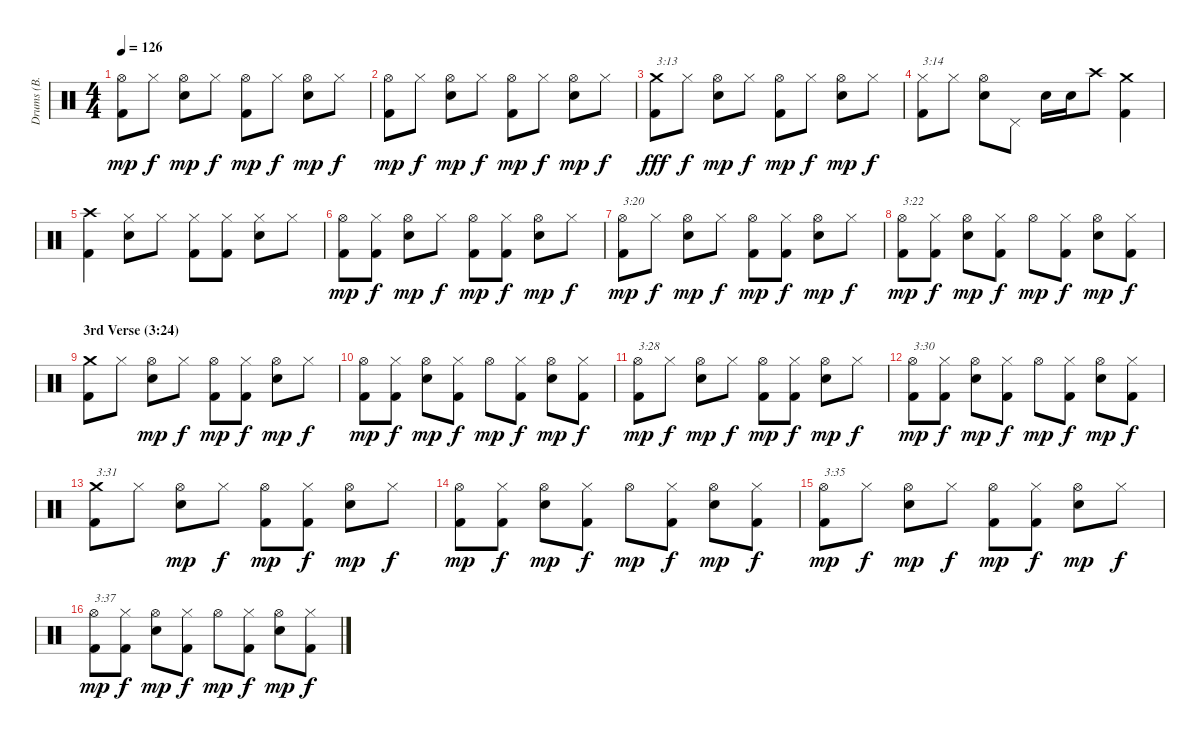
\track ("Drums (B. Downey)" "Drums (B. ") {instrument percussion}
\staff {score}
\articulation defaults
\ts (4 4)
\tempo 126
\clef neutral
\ks c
("Hi-Hat (open)" "Kick (hit) 2").8{dy mp} "Hi-Hat (closed)".8{dy f} ("Hi-Hat (open)" "Electric Snare (hit)").8{dy mp} "Hi-Hat (closed)".8{dy f} ("Hi-Hat (open)" "Kick (hit) 2").8{dy mp} "Hi-Hat (closed)".8{dy f} ("Hi-Hat (open)" "Electric Snare (hit)").8{dy mp} "Hi-Hat (closed)".8{dy f} |
("Hi-Hat (open)" "Kick (hit) 2").8{dy mp} "Hi-Hat (closed)".8{dy f} ("Hi-Hat (open)" "Electric Snare (hit)").8{dy mp} "Hi-Hat (closed)".8{dy f} ("Hi-Hat (open)" "Kick (hit) 2").8{dy mp} "Hi-Hat (closed)".8{dy f} ("Hi-Hat (open)" "Electric Snare (hit)").8{dy mp} "Hi-Hat (closed)".8{dy f} |
("Crash medium (hit)" "Kick (hit) 2").8{txt "3:13" dy fff} "Hi-Hat (closed)".8{dy f} ("Hi-Hat (open)" "Electric Snare (hit)").8{dy mp} "Hi-Hat (closed)".8{dy f} ("Hi-Hat (open)" "Kick (hit) 2").8{dy mp} "Hi-Hat (closed)".8{dy f} ("Hi-Hat (open)" "Electric Snare (hit)").8{dy mp} "Hi-Hat (closed)".8{dy f} |
("Hi-Hat (closed)" "Kick (hit) 2").8{txt "3:14"} "Hi-Hat (closed)".8 ("Hi-Hat (open)" "Electric Snare (hit)").8 "Pedal Hi-Hat (hit)".8 "Electric Snare (hit)".16 "Electric Snare (hit)".16 "Crash high (hit)".8{balance 13} ("Crash medium (hit)" "Kick (hit) 2").4{balance 3} |
("Crash high (hit)" "Kick (hit) 2").4{balance 8} ("Hi-Hat (closed)" "Electric Snare (hit)").8 "Hi-Hat (closed)".8 ("Hi-Hat (closed)" "Kick (hit) 2").8 ("Hi-Hat (closed)" "Kick (hit) 2").8 ("Hi-Hat (closed)" "Electric Snare (hit)").8 "Hi-Hat (closed)".8 |
("Hi-Hat (open)" "Kick (hit) 2").8{dy mp} ("Hi-Hat (closed)" "Kick (hit) 2").8{dy f} ("Hi-Hat (open)" "Electric Snare (hit)").8{dy mp} "Hi-Hat (closed)".8{dy f} ("Hi-Hat (open)" "Kick (hit) 2").8{dy mp} ("Hi-Hat (closed)" "Kick (hit) 2").8{dy f} ("Hi-Hat (open)" "Electric Snare (hit)").8{dy mp} "Hi-Hat (closed)".8{dy f} |
("Hi-Hat (open)" "Kick (hit) 2").8{txt "3:20" dy mp} "Hi-Hat (closed)".8{dy f} ("Hi-Hat (open)" "Electric Snare (hit)").8{dy mp} "Hi-Hat (closed)".8{dy f} ("Hi-Hat (open)" "Kick (hit) 2").8{dy mp} ("Hi-Hat (closed)" "Kick (hit) 2").8{dy f} ("Hi-Hat (open)" "Electric Snare (hit)").8{dy mp} "Hi-Hat (closed)".8{dy f} |
("Hi-Hat (open)" "Kick (hit) 2").8{txt "3:22" dy mp} ("Hi-Hat (closed)" "Kick (hit) 2").8{dy f} ("Hi-Hat (open)" "Electric Snare (hit)").8{dy mp} ("Hi-Hat (closed)" "Kick (hit) 2").8{dy f} "Hi-Hat (open)".8{dy mp} ("Hi-Hat (closed)" "Kick (hit) 2").8{dy f} ("Hi-Hat (open)" "Electric Snare (hit)").8{dy mp} ("Hi-Hat (closed)" "Kick (hit) 2").8{dy f} |
\section ("" "3rd Verse (3:24)")
("Crash medium (hit)" "Kick (hit) 2").8 "Hi-Hat (closed)".8 ("Hi-Hat (open)" "Electric Snare (hit)").8{dy mp} "Hi-Hat (closed)".8{dy f} ("Hi-Hat (open)" "Kick (hit) 2").8{dy mp} ("Hi-Hat (closed)" "Kick (hit) 2").8{dy f} ("Hi-Hat (open)" "Electric Snare (hit)").8{dy mp} "Hi-Hat (closed)".8{dy f} |
("Hi-Hat (open)" "Kick (hit) 2").8{dy mp} ("Hi-Hat (closed)" "Kick (hit) 2").8{dy f} ("Hi-Hat (open)" "Electric Snare (hit)").8{dy mp} ("Hi-Hat (closed)" "Kick (hit) 2").8{dy f} "Hi-Hat (open)".8{dy mp} ("Hi-Hat (closed)" "Kick (hit) 2").8{dy f} ("Hi-Hat (open)" "Electric Snare (hit)").8{dy mp} ("Hi-Hat (closed)" "Kick (hit) 2").8{dy f} |
("Hi-Hat (open)" "Kick (hit) 2").8{txt "3:28" dy mp} "Hi-Hat (closed)".8{dy f} ("Hi-Hat (open)" "Electric Snare (hit)").8{dy mp} "Hi-Hat (closed)".8{dy f} ("Hi-Hat (open)" "Kick (hit) 2").8{dy mp} ("Hi-Hat (closed)" "Kick (hit) 2").8{dy f} ("Hi-Hat (open)" "Electric Snare (hit)").8{dy mp} "Hi-Hat (closed)".8{dy f} |
("Hi-Hat (open)" "Kick (hit) 2").8{txt "3:30" dy mp} ("Hi-Hat (closed)" "Kick (hit) 2").8{dy f} ("Hi-Hat (open)" "Electric Snare (hit)").8{dy mp} ("Hi-Hat (closed)" "Kick (hit) 2").8{dy f} "Hi-Hat (open)".8{dy mp} ("Hi-Hat (closed)" "Kick (hit) 2").8{dy f} ("Hi-Hat (open)" "Electric Snare (hit)").8{dy mp} ("Hi-Hat (closed)" "Kick (hit) 2").8{dy f} |
("Crash medium (hit)" "Kick (hit) 2").8{txt "3:31"} "Hi-Hat (closed)".8 ("Hi-Hat (open)" "Electric Snare (hit)").8{dy mp} "Hi-Hat (closed)".8{dy f} ("Hi-Hat (open)" "Kick (hit) 2").8{dy mp} ("Hi-Hat (closed)" "Kick (hit) 2").8{dy f} ("Hi-Hat (open)" "Electric Snare (hit)").8{dy mp} "Hi-Hat (closed)".8{dy f} |
("Hi-Hat (open)" "Kick (hit) 2").8{dy mp} ("Hi-Hat (closed)" "Kick (hit) 2").8{dy f} ("Hi-Hat (open)" "Electric Snare (hit)").8{dy mp} ("Hi-Hat (closed)" "Kick (hit) 2").8{dy f} "Hi-Hat (open)".8{dy mp} ("Hi-Hat (closed)" "Kick (hit) 2").8{dy f} ("Hi-Hat (open)" "Electric Snare (hit)").8{dy mp} ("Hi-Hat (closed)" "Kick (hit) 2").8{dy f} |
("Hi-Hat (open)" "Kick (hit) 2").8{txt "3:35" dy mp} "Hi-Hat (closed)".8{dy f} ("Hi-Hat (open)" "Electric Snare (hit)").8{dy mp} "Hi-Hat (closed)".8{dy f} ("Hi-Hat (open)" "Kick (hit) 2").8{dy mp} ("Hi-Hat (closed)" "Kick (hit) 2").8{dy f} ("Hi-Hat (open)" "Electric Snare (hit)").8{dy mp} "Hi-Hat (closed)".8{dy f} |
("Hi-Hat (open)" "Kick (hit) 2").8{txt "3:37" dy mp} ("Hi-Hat (closed)" "Kick (hit) 2").8{dy f} ("Hi-Hat (open)" "Electric Snare (hit)").8{dy mp} ("Hi-Hat (closed)" "Kick (hit) 2").8{dy f} "Hi-Hat (open)".8{dy mp} ("Hi-Hat (closed)" "Kick (hit) 2").8{dy f} ("Hi-Hat (open)" "Electric Snare (hit)").8{dy mp} ("Hi-Hat (closed)" "Kick (hit) 2").8{dy f}
